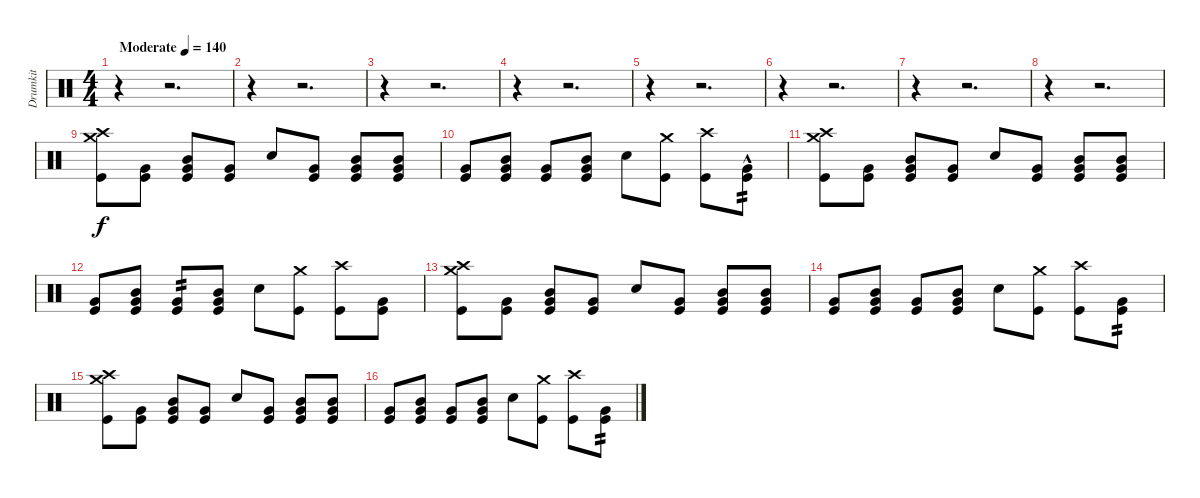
\track ("Drumkit" "Drumkit") {instrument percussion}
\staff {score}
\articulation defaults
\ts (4 4)
\tempo (140 "Moderate")
\clef neutral
\ks c
r.4{dy f} r.2{d} |
r.4 r.2{d} |
r.4 r.2{d} |
r.4 r.2{d} |
r.4 r.2{d} |
r.4 r.2{d} |
r.4 r.2{d} |
r.4 r.2{d} |
("Crash high (hit)" "Crash medium (hit)" "Kick (hit)").8 ("Very Low Tom (hit)" "Kick (hit)").8 ("Mid Tom (hit)" "Very Low Tom (hit)" "Kick (hit)").8 ("Very Low Tom (hit)" "Kick (hit)").8 "Snare (hit) 2".8 ("Very Low Tom (hit)" "Kick (hit)").8 ("Mid Tom (hit)" "Very Low Tom (hit)" "Kick (hit)").8 ("Mid Tom (hit)" "Very Low Tom (hit)" "Kick (hit)").8 |
("Very Low Tom (hit)" "Kick (hit)").8 ("Mid Tom (hit)" "Very Low Tom (hit)" "Kick (hit)").8 ("Very Low Tom (hit)" "Kick (hit)").8 ("Mid Tom (hit)" "Very Low Tom (hit)" "Kick (hit)").8 "Snare (hit) 2".8 ("Crash medium (hit)" "Kick (hit)").8 ("Crash high (hit)" "Kick (hit)").8 ("Very Low Tom (hit)" "Kick (hit)"{hac}).8{tp 2} |
("Crash high (hit)" "Crash medium (hit)" "Kick (hit)").8 ("Very Low Tom (hit)" "Kick (hit)").8 ("Mid Tom (hit)" "Very Low Tom (hit)" "Kick (hit)").8 ("Very Low Tom (hit)" "Kick (hit)").8 "Snare (hit) 2".8 ("Very Low Tom (hit)" "Kick (hit)").8 ("Mid Tom (hit)" "Very Low Tom (hit)" "Kick (hit)").8 ("Mid Tom (hit)" "Very Low Tom (hit)" "Kick (hit)").8 |
("Very Low Tom (hit)" "Kick (hit)").8 ("Mid Tom (hit)" "Very Low Tom (hit)" "Kick (hit)").8 ("Very Low Tom (hit)" "Kick (hit)").8{tp 2} ("Mid Tom (hit)" "Very Low Tom (hit)" "Kick (hit)").8 "Snare (hit) 2".8 ("Crash medium (hit)" "Kick (hit)").8 ("Crash high (hit)" "Kick (hit)").8 ("Very Low Tom (hit)" "Kick (hit)").8 |
("Crash high (hit)" "Crash medium (hit)" "Kick (hit)").8 ("Very Low Tom (hit)" "Kick (hit)").8 ("Mid Tom (hit)" "Very Low Tom (hit)" "Kick (hit)").8 ("Very Low Tom (hit)" "Kick (hit)").8 "Snare (hit) 2".8 ("Very Low Tom (hit)" "Kick (hit)").8 ("Mid Tom (hit)" "Very Low Tom (hit)" "Kick (hit)").8 ("Mid Tom (hit)" "Very Low Tom (hit)" "Kick (hit)").8 |
("Very Low Tom (hit)" "Kick (hit)").8 ("Mid Tom (hit)" "Very Low Tom (hit)" "Kick (hit)").8 ("Very Low Tom (hit)" "Kick (hit)").8 ("Mid Tom (hit)" "Very Low Tom (hit)" "Kick (hit)").8 "Snare (hit) 2".8 ("Crash medium (hit)" "Kick (hit)").8 ("Crash high (hit)" "Kick (hit)").8 ("Very Low Tom (hit)" "Kick (hit)").8{tp 2} |
("Crash high (hit)" "Crash medium (hit)" "Kick (hit)").8 ("Very Low Tom (hit)" "Kick (hit)").8 ("Mid Tom (hit)" "Very Low Tom (hit)" "Kick (hit)").8 ("Very Low Tom (hit)" "Kick (hit)").8 "Snare (hit) 2".8 ("Very Low Tom (hit)" "Kick (hit)").8 ("Mid Tom (hit)" "Very Low Tom (hit)" "Kick (hit)").8 ("Mid Tom (hit)" "Very Low Tom (hit)" "Kick (hit)").8 |
("Very Low Tom (hit)" "Kick (hit)").8 ("Mid Tom (hit)" "Very Low Tom (hit)" "Kick (hit)").8 ("Very Low Tom (hit)" "Kick (hit)").8 ("Mid Tom (hit)" "Very Low Tom (hit)" "Kick (hit)").8 "Snare (hit) 2".8 ("Crash medium (hit)" "Kick (hit)").8 ("Crash high (hit)" "Kick (hit)").8 ("Very Low Tom (hit)" "Kick (hit)").8{tp 2}
